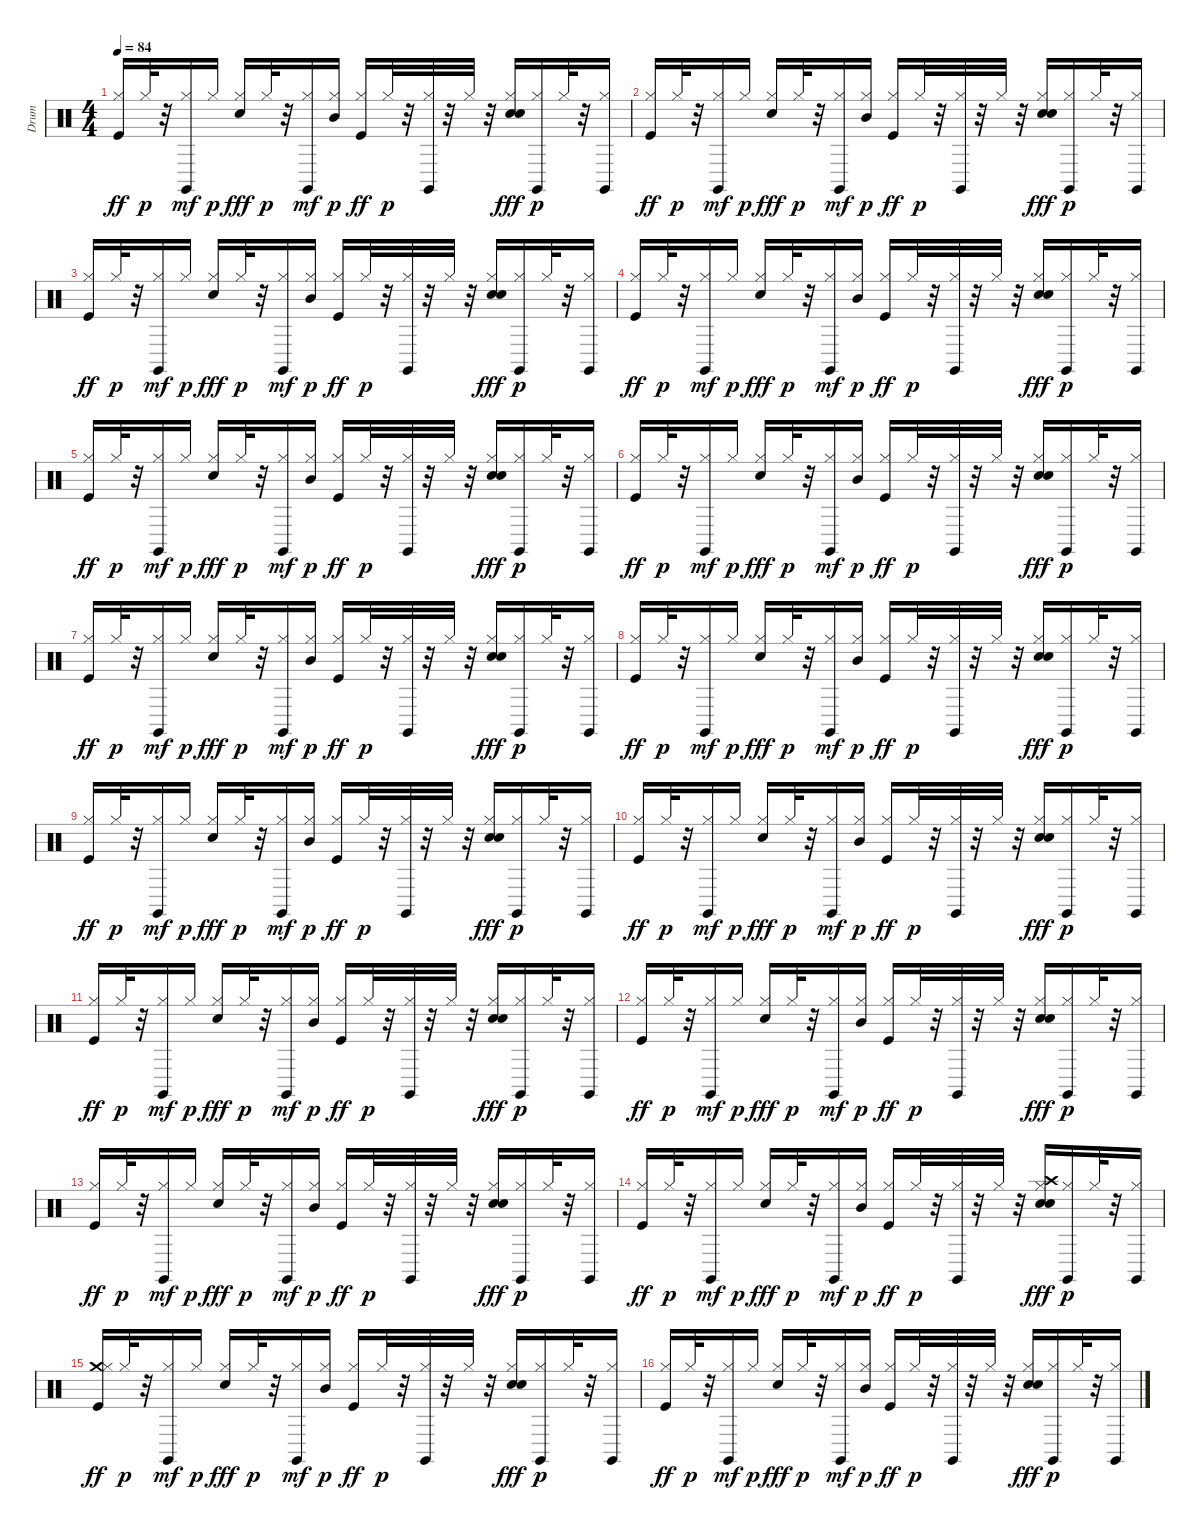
\track ("Drum" "Drum") {instrument percussion}
\staff {score}
\articulation defaults
\ts (4 4)
\tempo 84
\clef neutral
\ks c
("Kick (hit)" "Hi-Hat (closed)").16{dy ff} "Hi-Hat (closed)".32{dy p} r.32 ("Hi-Hat (closed)" "Claves (hit)").16{dy mf} "Hi-Hat (closed)".16{dy p} ("Hi-Hat (closed)" "Snare (hit) 2").16{dy fff} "Hi-Hat (closed)".32{dy p} r.32 ("Hi-Hat (closed)" "Claves (hit)").16{dy mf} ("Hi-Hat (closed)" "Mid Tom (hit)").16{dy p} ("Kick (hit)" "Hi-Hat (closed)").16{dy ff} "Hi-Hat (closed)".32{dy p} r.32 ("Hi-Hat (closed)" "Claves (hit)").32 r.32 "Hi-Hat (closed)".32 r.32 ("Hi-Hat (closed)" "Snare (hit) 2" "Hand Clap (hit)").16{dy fff} ("Hi-Hat (closed)" "Claves (hit)").16{dy p} "Hi-Hat (closed)".32 r.32 ("Hi-Hat (closed)" "Claves (hit)").16 |
("Kick (hit)" "Hi-Hat (closed)").16{dy ff} "Hi-Hat (closed)".32{dy p} r.32 ("Hi-Hat (closed)" "Claves (hit)").16{dy mf} "Hi-Hat (closed)".16{dy p} ("Hi-Hat (closed)" "Snare (hit) 2").16{dy fff} "Hi-Hat (closed)".32{dy p} r.32 ("Hi-Hat (closed)" "Claves (hit)").16{dy mf} ("Hi-Hat (closed)" "Mid Tom (hit)").16{dy p} ("Kick (hit)" "Hi-Hat (closed)").16{dy ff} "Hi-Hat (closed)".32{dy p} r.32 ("Hi-Hat (closed)" "Claves (hit)").32 r.32 "Hi-Hat (closed)".32 r.32 ("Hi-Hat (closed)" "Snare (hit) 2" "Hand Clap (hit)").16{dy fff} ("Hi-Hat (closed)" "Claves (hit)").16{dy p} "Hi-Hat (closed)".32 r.32 ("Hi-Hat (closed)" "Claves (hit)").16 |
("Kick (hit)" "Hi-Hat (closed)").16{dy ff} "Hi-Hat (closed)".32{dy p} r.32 ("Hi-Hat (closed)" "Claves (hit)").16{dy mf} "Hi-Hat (closed)".16{dy p} ("Hi-Hat (closed)" "Snare (hit) 2").16{dy fff} "Hi-Hat (closed)".32{dy p} r.32 ("Hi-Hat (closed)" "Claves (hit)").16{dy mf} ("Hi-Hat (closed)" "Mid Tom (hit)").16{dy p} ("Kick (hit)" "Hi-Hat (closed)").16{dy ff} "Hi-Hat (closed)".32{dy p} r.32 ("Hi-Hat (closed)" "Claves (hit)").32 r.32 "Hi-Hat (closed)".32 r.32 ("Hi-Hat (closed)" "Snare (hit) 2" "Hand Clap (hit)").16{dy fff} ("Hi-Hat (closed)" "Claves (hit)").16{dy p} "Hi-Hat (closed)".32 r.32 ("Hi-Hat (closed)" "Claves (hit)").16 |
("Kick (hit)" "Hi-Hat (closed)").16{dy ff} "Hi-Hat (closed)".32{dy p} r.32 ("Hi-Hat (closed)" "Claves (hit)").16{dy mf} "Hi-Hat (closed)".16{dy p} ("Hi-Hat (closed)" "Snare (hit) 2").16{dy fff} "Hi-Hat (closed)".32{dy p} r.32 ("Hi-Hat (closed)" "Claves (hit)").16{dy mf} ("Hi-Hat (closed)" "Mid Tom (hit)").16{dy p} ("Kick (hit)" "Hi-Hat (closed)").16{dy ff} "Hi-Hat (closed)".32{dy p} r.32 ("Hi-Hat (closed)" "Claves (hit)").32 r.32 "Hi-Hat (closed)".32 r.32 ("Hi-Hat (closed)" "Snare (hit) 2" "Hand Clap (hit)").16{dy fff} ("Hi-Hat (closed)" "Claves (hit)").16{dy p} "Hi-Hat (closed)".32 r.32 ("Hi-Hat (closed)" "Claves (hit)").16 |
("Kick (hit)" "Hi-Hat (closed)").16{dy ff} "Hi-Hat (closed)".32{dy p} r.32 ("Hi-Hat (closed)" "Claves (hit)").16{dy mf} "Hi-Hat (closed)".16{dy p} ("Hi-Hat (closed)" "Snare (hit) 2").16{dy fff} "Hi-Hat (closed)".32{dy p} r.32 ("Hi-Hat (closed)" "Claves (hit)").16{dy mf} ("Hi-Hat (closed)" "Mid Tom (hit)").16{dy p} ("Kick (hit)" "Hi-Hat (closed)").16{dy ff} "Hi-Hat (closed)".32{dy p} r.32 ("Hi-Hat (closed)" "Claves (hit)").32 r.32 "Hi-Hat (closed)".32 r.32 ("Hi-Hat (closed)" "Snare (hit) 2" "Hand Clap (hit)").16{dy fff} ("Hi-Hat (closed)" "Claves (hit)").16{dy p} "Hi-Hat (closed)".32 r.32 ("Hi-Hat (closed)" "Claves (hit)").16 |
("Kick (hit)" "Hi-Hat (closed)").16{dy ff} "Hi-Hat (closed)".32{dy p} r.32 ("Hi-Hat (closed)" "Claves (hit)").16{dy mf} "Hi-Hat (closed)".16{dy p} ("Hi-Hat (closed)" "Snare (hit) 2").16{dy fff} "Hi-Hat (closed)".32{dy p} r.32 ("Hi-Hat (closed)" "Claves (hit)").16{dy mf} ("Hi-Hat (closed)" "Mid Tom (hit)").16{dy p} ("Kick (hit)" "Hi-Hat (closed)").16{dy ff} "Hi-Hat (closed)".32{dy p} r.32 ("Hi-Hat (closed)" "Claves (hit)").32 r.32 "Hi-Hat (closed)".32 r.32 ("Hi-Hat (closed)" "Snare (hit) 2" "Hand Clap (hit)").16{dy fff} ("Hi-Hat (closed)" "Claves (hit)").16{dy p} "Hi-Hat (closed)".32 r.32 ("Hi-Hat (closed)" "Claves (hit)").16 |
("Kick (hit)" "Hi-Hat (closed)").16{dy ff} "Hi-Hat (closed)".32{dy p} r.32 ("Hi-Hat (closed)" "Claves (hit)").16{dy mf} "Hi-Hat (closed)".16{dy p} ("Hi-Hat (closed)" "Snare (hit) 2").16{dy fff} "Hi-Hat (closed)".32{dy p} r.32 ("Hi-Hat (closed)" "Claves (hit)").16{dy mf} ("Hi-Hat (closed)" "Mid Tom (hit)").16{dy p} ("Kick (hit)" "Hi-Hat (closed)").16{dy ff} "Hi-Hat (closed)".32{dy p} r.32 ("Hi-Hat (closed)" "Claves (hit)").32 r.32 "Hi-Hat (closed)".32 r.32 ("Hi-Hat (closed)" "Snare (hit) 2" "Hand Clap (hit)").16{dy fff} ("Hi-Hat (closed)" "Claves (hit)").16{dy p} "Hi-Hat (closed)".32 r.32 ("Hi-Hat (closed)" "Claves (hit)").16 |
("Kick (hit)" "Hi-Hat (closed)").16{dy ff} "Hi-Hat (closed)".32{dy p} r.32 ("Hi-Hat (closed)" "Claves (hit)").16{dy mf} "Hi-Hat (closed)".16{dy p} ("Hi-Hat (closed)" "Snare (hit) 2").16{dy fff} "Hi-Hat (closed)".32{dy p} r.32 ("Hi-Hat (closed)" "Claves (hit)").16{dy mf} ("Hi-Hat (closed)" "Mid Tom (hit)").16{dy p} ("Kick (hit)" "Hi-Hat (closed)").16{dy ff} "Hi-Hat (closed)".32{dy p} r.32 ("Hi-Hat (closed)" "Claves (hit)").32 r.32 "Hi-Hat (closed)".32 r.32 ("Hi-Hat (closed)" "Snare (hit) 2" "Hand Clap (hit)").16{dy fff} ("Hi-Hat (closed)" "Claves (hit)").16{dy p} "Hi-Hat (closed)".32 r.32 ("Hi-Hat (closed)" "Claves (hit)").16 |
("Kick (hit)" "Hi-Hat (closed)").16{dy ff} "Hi-Hat (closed)".32{dy p} r.32 ("Hi-Hat (closed)" "Claves (hit)").16{dy mf} "Hi-Hat (closed)".16{dy p} ("Hi-Hat (closed)" "Snare (hit) 2").16{dy fff} "Hi-Hat (closed)".32{dy p} r.32 ("Hi-Hat (closed)" "Claves (hit)").16{dy mf} ("Hi-Hat (closed)" "Mid Tom (hit)").16{dy p} ("Kick (hit)" "Hi-Hat (closed)").16{dy ff} "Hi-Hat (closed)".32{dy p} r.32 ("Hi-Hat (closed)" "Claves (hit)").32 r.32 "Hi-Hat (closed)".32 r.32 ("Hi-Hat (closed)" "Snare (hit) 2" "Hand Clap (hit)").16{dy fff} ("Hi-Hat (closed)" "Claves (hit)").16{dy p} "Hi-Hat (closed)".32 r.32 ("Hi-Hat (closed)" "Claves (hit)").16 |
("Kick (hit)" "Hi-Hat (closed)").16{dy ff} "Hi-Hat (closed)".32{dy p} r.32 ("Hi-Hat (closed)" "Claves (hit)").16{dy mf} "Hi-Hat (closed)".16{dy p} ("Hi-Hat (closed)" "Snare (hit) 2").16{dy fff} "Hi-Hat (closed)".32{dy p} r.32 ("Hi-Hat (closed)" "Claves (hit)").16{dy mf} ("Hi-Hat (closed)" "Mid Tom (hit)").16{dy p} ("Kick (hit)" "Hi-Hat (closed)").16{dy ff} "Hi-Hat (closed)".32{dy p} r.32 ("Hi-Hat (closed)" "Claves (hit)").32 r.32 "Hi-Hat (closed)".32 r.32 ("Hi-Hat (closed)" "Snare (hit) 2" "Hand Clap (hit)").16{dy fff} ("Hi-Hat (closed)" "Claves (hit)").16{dy p} "Hi-Hat (closed)".32 r.32 ("Hi-Hat (closed)" "Claves (hit)").16 |
("Kick (hit)" "Hi-Hat (closed)").16{dy ff} "Hi-Hat (closed)".32{dy p} r.32 ("Hi-Hat (closed)" "Claves (hit)").16{dy mf} "Hi-Hat (closed)".16{dy p} ("Hi-Hat (closed)" "Snare (hit) 2").16{dy fff} "Hi-Hat (closed)".32{dy p} r.32 ("Hi-Hat (closed)" "Claves (hit)").16{dy mf} ("Hi-Hat (closed)" "Mid Tom (hit)").16{dy p} ("Kick (hit)" "Hi-Hat (closed)").16{dy ff} "Hi-Hat (closed)".32{dy p} r.32 ("Hi-Hat (closed)" "Claves (hit)").32 r.32 "Hi-Hat (closed)".32 r.32 ("Hi-Hat (closed)" "Snare (hit) 2" "Hand Clap (hit)").16{dy fff} ("Hi-Hat (closed)" "Claves (hit)").16{dy p} "Hi-Hat (closed)".32 r.32 ("Hi-Hat (closed)" "Claves (hit)").16 |
("Kick (hit)" "Hi-Hat (closed)").16{dy ff} "Hi-Hat (closed)".32{dy p} r.32 ("Hi-Hat (closed)" "Claves (hit)").16{dy mf} "Hi-Hat (closed)".16{dy p} ("Hi-Hat (closed)" "Snare (hit) 2").16{dy fff} "Hi-Hat (closed)".32{dy p} r.32 ("Hi-Hat (closed)" "Claves (hit)").16{dy mf} ("Hi-Hat (closed)" "Mid Tom (hit)").16{dy p} ("Kick (hit)" "Hi-Hat (closed)").16{dy ff} "Hi-Hat (closed)".32{dy p} r.32 ("Hi-Hat (closed)" "Claves (hit)").32 r.32 "Hi-Hat (closed)".32 r.32 ("Hi-Hat (closed)" "Snare (hit) 2" "Hand Clap (hit)").16{dy fff} ("Hi-Hat (closed)" "Claves (hit)").16{dy p} "Hi-Hat (closed)".32 r.32 ("Hi-Hat (closed)" "Claves (hit)").16 |
("Kick (hit)" "Hi-Hat (closed)").16{dy ff} "Hi-Hat (closed)".32{dy p} r.32 ("Hi-Hat (closed)" "Claves (hit)").16{dy mf} "Hi-Hat (closed)".16{dy p} ("Hi-Hat (closed)" "Snare (hit) 2").16{dy fff} "Hi-Hat (closed)".32{dy p} r.32 ("Hi-Hat (closed)" "Claves (hit)").16{dy mf} ("Hi-Hat (closed)" "Mid Tom (hit)").16{dy p} ("Kick (hit)" "Hi-Hat (closed)").16{dy ff} "Hi-Hat (closed)".32{dy p} r.32 ("Hi-Hat (closed)" "Claves (hit)").32 r.32 "Hi-Hat (closed)".32 r.32 ("Hi-Hat (closed)" "Snare (hit) 2" "Hand Clap (hit)").16{dy fff} ("Hi-Hat (closed)" "Claves (hit)").16{dy p} "Hi-Hat (closed)".32 r.32 ("Hi-Hat (closed)" "Claves (hit)").16 |
("Kick (hit)" "Hi-Hat (closed)").16{dy ff} "Hi-Hat (closed)".32{dy p} r.32 ("Hi-Hat (closed)" "Claves (hit)").16{dy mf} "Hi-Hat (closed)".16{dy p} ("Hi-Hat (closed)" "Snare (hit) 2").16{dy fff} "Hi-Hat (closed)".32{dy p} r.32 ("Hi-Hat (closed)" "Claves (hit)").16{dy mf} ("Hi-Hat (closed)" "Mid Tom (hit)").16{dy p} ("Kick (hit)" "Hi-Hat (closed)").16{dy ff} "Hi-Hat (closed)".32{dy p} r.32 ("Hi-Hat (closed)" "Claves (hit)").32 r.32 "Hi-Hat (closed)".32 r.32 ("Crash high (hit)" "Hi-Hat (closed)" "Snare (hit) 2" "Hand Clap (hit)").16{dy fff} ("Hi-Hat (closed)" "Claves (hit)").16{dy p} "Hi-Hat (closed)".32 r.32 ("Hi-Hat (closed)" "Claves (hit)").16 |
("Crash medium (hit)" "Kick (hit)" "Hi-Hat (closed)").16{dy ff} "Hi-Hat (closed)".32{dy p} r.32 ("Hi-Hat (closed)" "Claves (hit)").16{dy mf} "Hi-Hat (closed)".16{dy p} ("Hi-Hat (closed)" "Snare (hit) 2").16{dy fff} "Hi-Hat (closed)".32{dy p} r.32 ("Hi-Hat (closed)" "Claves (hit)").16{dy mf} ("Hi-Hat (closed)" "Mid Tom (hit)").16{dy p} ("Kick (hit)" "Hi-Hat (closed)").16{dy ff} "Hi-Hat (closed)".32{dy p} r.32 ("Hi-Hat (closed)" "Claves (hit)").32 r.32 "Hi-Hat (closed)".32 r.32 ("Hi-Hat (closed)" "Snare (hit) 2" "Hand Clap (hit)").16{dy fff} ("Hi-Hat (closed)" "Claves (hit)").16{dy p} "Hi-Hat (closed)".32 r.32 ("Hi-Hat (closed)" "Claves (hit)").16 |
("Kick (hit)" "Hi-Hat (closed)").16{dy ff} "Hi-Hat (closed)".32{dy p} r.32 ("Hi-Hat (closed)" "Claves (hit)").16{dy mf} "Hi-Hat (closed)".16{dy p} ("Hi-Hat (closed)" "Snare (hit) 2").16{dy fff} "Hi-Hat (closed)".32{dy p} r.32 ("Hi-Hat (closed)" "Claves (hit)").16{dy mf} ("Hi-Hat (closed)" "Mid Tom (hit)").16{dy p} ("Kick (hit)" "Hi-Hat (closed)").16{dy ff} "Hi-Hat (closed)".32{dy p} r.32 ("Hi-Hat (closed)" "Claves (hit)").32 r.32 "Hi-Hat (closed)".32 r.32 ("Hi-Hat (closed)" "Snare (hit) 2" "Hand Clap (hit)").16{dy fff} ("Hi-Hat (closed)" "Claves (hit)").16{dy p} "Hi-Hat (closed)".32 r.32 ("Hi-Hat (closed)" "Claves (hit)").16
